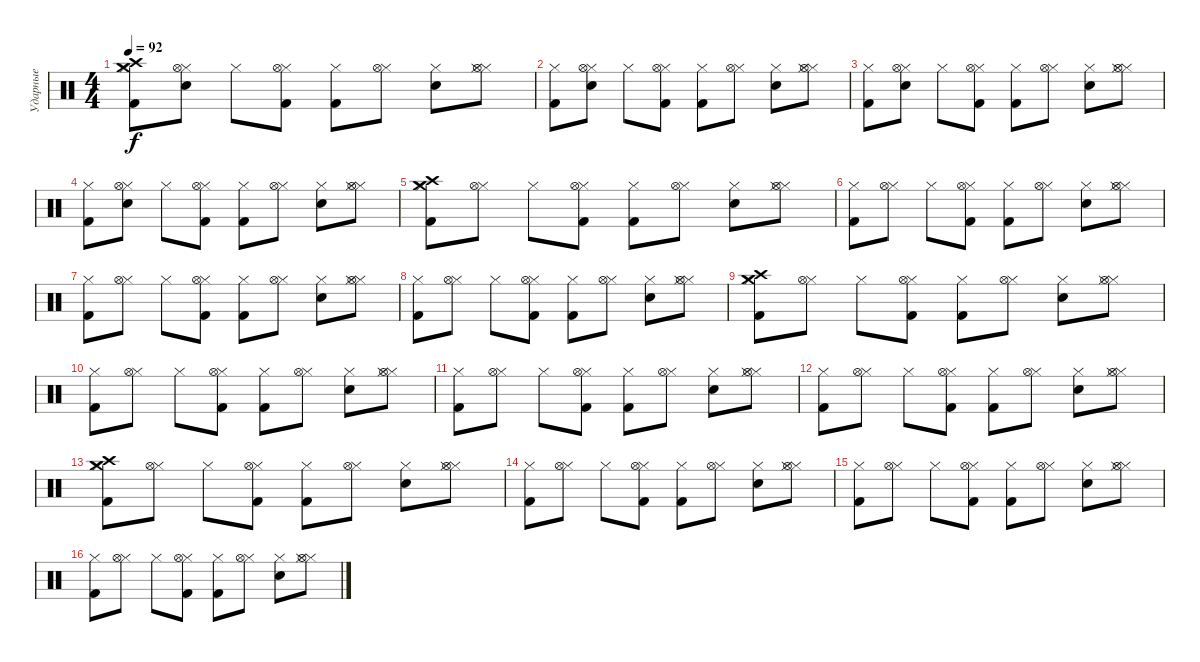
\track ("Ударные" "Ударные") {instrument percussion}
\staff {score}
\articulation defaults
\ts (4 4)
\tempo 92
\clef neutral
\ks c
("Kick (hit) 2" "Hi-Hat (closed)" "Crash high (hit)" "Crash medium (hit)").8{dy f} ("Hi-Hat (closed)" "Hi-Hat (open)" "Snare (hit) 2").8 "Hi-Hat (closed)".8 ("Kick (hit) 2" "Hi-Hat (closed)" "Hi-Hat (open)").8 ("Kick (hit) 2" "Hi-Hat (closed)").8 ("Hi-Hat (closed)" "Hi-Hat (open)").8 ("Snare (hit) 2" "Hi-Hat (closed)").8 ("Hi-Hat (closed)" "Hi-Hat (closed)" "Hi-Hat (open)").8 |
("Kick (hit) 2" "Hi-Hat (closed)").8 ("Hi-Hat (closed)" "Hi-Hat (open)" "Snare (hit) 2").8 "Hi-Hat (closed)".8 ("Kick (hit) 2" "Hi-Hat (closed)" "Hi-Hat (open)").8 ("Kick (hit) 2" "Hi-Hat (closed)").8 ("Hi-Hat (closed)" "Hi-Hat (open)").8 ("Snare (hit) 2" "Hi-Hat (closed)").8 ("Hi-Hat (closed)" "Hi-Hat (closed)" "Hi-Hat (open)").8 |
("Kick (hit) 2" "Hi-Hat (closed)").8 ("Hi-Hat (closed)" "Hi-Hat (open)" "Snare (hit) 2").8 "Hi-Hat (closed)".8 ("Kick (hit) 2" "Hi-Hat (closed)" "Hi-Hat (open)").8 ("Kick (hit) 2" "Hi-Hat (closed)").8 ("Hi-Hat (closed)" "Hi-Hat (open)").8 ("Snare (hit) 2" "Hi-Hat (closed)").8 ("Hi-Hat (closed)" "Hi-Hat (closed)" "Hi-Hat (open)").8 |
("Kick (hit) 2" "Hi-Hat (closed)").8 ("Hi-Hat (closed)" "Hi-Hat (open)" "Snare (hit) 2").8 "Hi-Hat (closed)".8 ("Kick (hit) 2" "Hi-Hat (closed)" "Hi-Hat (open)").8 ("Kick (hit) 2" "Hi-Hat (closed)").8 ("Hi-Hat (closed)" "Hi-Hat (open)").8 ("Snare (hit) 2" "Hi-Hat (closed)").8 ("Hi-Hat (closed)" "Hi-Hat (closed)" "Hi-Hat (open)").8 |
("Kick (hit) 2" "Hi-Hat (closed)" "Crash high (hit)" "Crash medium (hit)").8 ("Hi-Hat (closed)" "Hi-Hat (open)").8 "Hi-Hat (closed)".8 ("Kick (hit) 2" "Hi-Hat (closed)" "Hi-Hat (open)").8 ("Kick (hit) 2" "Hi-Hat (closed)").8 ("Hi-Hat (closed)" "Hi-Hat (open)").8 ("Snare (hit) 2" "Hi-Hat (closed)").8 ("Hi-Hat (closed)" "Hi-Hat (closed)" "Hi-Hat (open)").8 |
("Kick (hit) 2" "Hi-Hat (closed)").8 ("Hi-Hat (closed)" "Hi-Hat (open)").8 "Hi-Hat (closed)".8 ("Kick (hit) 2" "Hi-Hat (closed)" "Hi-Hat (open)").8 ("Kick (hit) 2" "Hi-Hat (closed)").8 ("Hi-Hat (closed)" "Hi-Hat (open)").8 ("Snare (hit) 2" "Hi-Hat (closed)").8 ("Hi-Hat (closed)" "Hi-Hat (closed)" "Hi-Hat (open)").8 |
("Kick (hit) 2" "Hi-Hat (closed)").8 ("Hi-Hat (closed)" "Hi-Hat (open)").8 "Hi-Hat (closed)".8 ("Kick (hit) 2" "Hi-Hat (closed)" "Hi-Hat (open)").8 ("Kick (hit) 2" "Hi-Hat (closed)").8 ("Hi-Hat (closed)" "Hi-Hat (open)").8 ("Snare (hit) 2" "Hi-Hat (closed)").8 ("Hi-Hat (closed)" "Hi-Hat (closed)" "Hi-Hat (open)").8 |
("Kick (hit) 2" "Hi-Hat (closed)").8 ("Hi-Hat (closed)" "Hi-Hat (open)").8 "Hi-Hat (closed)".8 ("Kick (hit) 2" "Hi-Hat (closed)" "Hi-Hat (open)").8 ("Kick (hit) 2" "Hi-Hat (closed)").8 ("Hi-Hat (closed)" "Hi-Hat (open)").8 ("Snare (hit) 2" "Hi-Hat (closed)").8 ("Hi-Hat (closed)" "Hi-Hat (closed)" "Hi-Hat (open)").8 |
("Kick (hit) 2" "Hi-Hat (closed)" "Crash high (hit)" "Crash medium (hit)").8 ("Hi-Hat (closed)" "Hi-Hat (open)").8 "Hi-Hat (closed)".8 ("Kick (hit) 2" "Hi-Hat (closed)" "Hi-Hat (open)").8 ("Kick (hit) 2" "Hi-Hat (closed)").8 ("Hi-Hat (closed)" "Hi-Hat (open)").8 ("Snare (hit) 2" "Hi-Hat (closed)").8 ("Hi-Hat (closed)" "Hi-Hat (closed)" "Hi-Hat (open)").8 |
("Kick (hit) 2" "Hi-Hat (closed)").8 ("Hi-Hat (closed)" "Hi-Hat (open)").8 "Hi-Hat (closed)".8 ("Kick (hit) 2" "Hi-Hat (closed)" "Hi-Hat (open)").8 ("Kick (hit) 2" "Hi-Hat (closed)").8 ("Hi-Hat (closed)" "Hi-Hat (open)").8 ("Snare (hit) 2" "Hi-Hat (closed)").8 ("Hi-Hat (closed)" "Hi-Hat (closed)" "Hi-Hat (open)").8 |
("Kick (hit) 2" "Hi-Hat (closed)").8 ("Hi-Hat (closed)" "Hi-Hat (open)").8 "Hi-Hat (closed)".8 ("Kick (hit) 2" "Hi-Hat (closed)" "Hi-Hat (open)").8 ("Kick (hit) 2" "Hi-Hat (closed)").8 ("Hi-Hat (closed)" "Hi-Hat (open)").8 ("Snare (hit) 2" "Hi-Hat (closed)").8 ("Hi-Hat (closed)" "Hi-Hat (closed)" "Hi-Hat (open)").8 |
("Kick (hit) 2" "Hi-Hat (closed)").8 ("Hi-Hat (closed)" "Hi-Hat (open)").8 "Hi-Hat (closed)".8 ("Kick (hit) 2" "Hi-Hat (closed)" "Hi-Hat (open)").8 ("Kick (hit) 2" "Hi-Hat (closed)").8 ("Hi-Hat (closed)" "Hi-Hat (open)").8 ("Snare (hit) 2" "Hi-Hat (closed)").8 ("Hi-Hat (closed)" "Hi-Hat (closed)" "Hi-Hat (open)").8 |
("Kick (hit) 2" "Hi-Hat (closed)" "Crash high (hit)" "Crash medium (hit)").8 ("Hi-Hat (closed)" "Hi-Hat (open)").8 "Hi-Hat (closed)".8 ("Kick (hit) 2" "Hi-Hat (closed)" "Hi-Hat (open)").8 ("Kick (hit) 2" "Hi-Hat (closed)").8 ("Hi-Hat (closed)" "Hi-Hat (open)").8 ("Snare (hit) 2" "Hi-Hat (closed)").8 ("Hi-Hat (closed)" "Hi-Hat (closed)" "Hi-Hat (open)").8 |
("Kick (hit) 2" "Hi-Hat (closed)").8 ("Hi-Hat (closed)" "Hi-Hat (open)").8 "Hi-Hat (closed)".8 ("Kick (hit) 2" "Hi-Hat (closed)" "Hi-Hat (open)").8 ("Kick (hit) 2" "Hi-Hat (closed)").8 ("Hi-Hat (closed)" "Hi-Hat (open)").8 ("Snare (hit) 2" "Hi-Hat (closed)").8 ("Hi-Hat (closed)" "Hi-Hat (closed)" "Hi-Hat (open)").8 |
("Kick (hit) 2" "Hi-Hat (closed)").8 ("Hi-Hat (closed)" "Hi-Hat (open)").8 "Hi-Hat (closed)".8 ("Kick (hit) 2" "Hi-Hat (closed)" "Hi-Hat (open)").8 ("Kick (hit) 2" "Hi-Hat (closed)").8 ("Hi-Hat (closed)" "Hi-Hat (open)").8 ("Snare (hit) 2" "Hi-Hat (closed)").8 ("Hi-Hat (closed)" "Hi-Hat (closed)" "Hi-Hat (open)").8 |
("Kick (hit) 2" "Hi-Hat (closed)").8 ("Hi-Hat (closed)" "Hi-Hat (open)").8 "Hi-Hat (closed)".8 ("Kick (hit) 2" "Hi-Hat (closed)" "Hi-Hat (open)").8 ("Kick (hit) 2" "Hi-Hat (closed)").8 ("Hi-Hat (closed)" "Hi-Hat (open)").8 ("Snare (hit) 2" "Hi-Hat (closed)").8 ("Hi-Hat (closed)" "Hi-Hat (closed)" "Hi-Hat (open)").8
